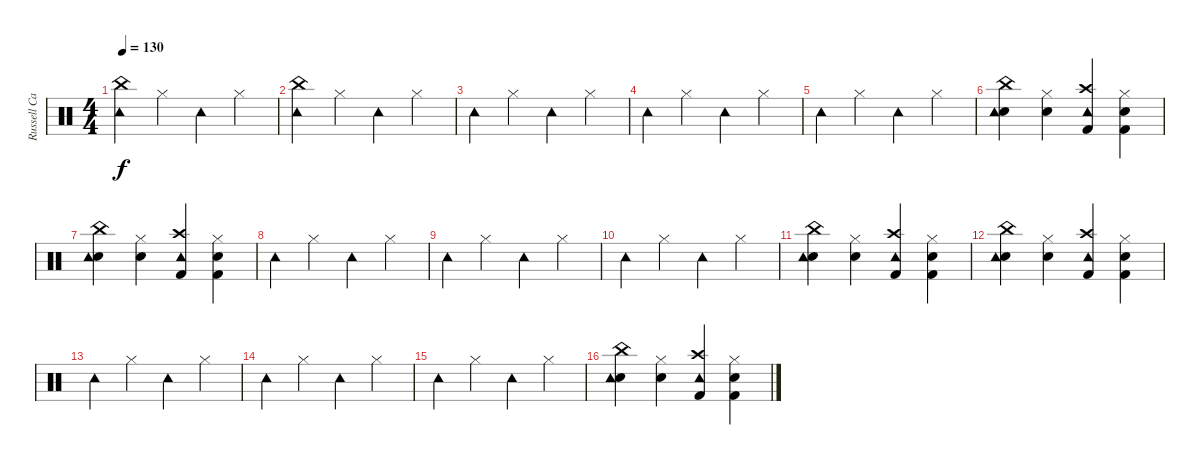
\track ("Russell Cannon" "Russell Ca") {instrument percussion}
\staff {score}
\articulation defaults
\ts (4 4)
\tempo 130
\clef neutral
\ks c
("China (hit)" "Tambourine (hit)").4{dy f} "Hi-Hat (closed)".4 "Tambourine (hit)".4 "Hi-Hat (closed)".4 |
("China (hit)" "Tambourine (hit)").4 "Hi-Hat (closed)".4 "Tambourine (hit)".4 "Hi-Hat (closed)".4 |
"Tambourine (hit)".4 "Hi-Hat (closed)".4 "Tambourine (hit)".4 "Hi-Hat (closed)".4 |
"Tambourine (hit)".4 "Hi-Hat (closed)".4 "Tambourine (hit)".4 "Hi-Hat (closed)".4 |
"Tambourine (hit)".4 "Hi-Hat (closed)".4 "Tambourine (hit)".4 "Hi-Hat (closed)".4 |
("Electric Snare (hit)" "China (hit)" "Tambourine (hit)").4 ("Electric Snare (hit)" "Hi-Hat (closed)").4 ("Crash high (hit)" "Kick (hit) 2" "Tambourine (hit)").4 ("Electric Snare (hit)" "Kick (hit) 2" "Hi-Hat (closed)").4 |
("Electric Snare (hit)" "China (hit)" "Tambourine (hit)").4 ("Electric Snare (hit)" "Hi-Hat (closed)").4 ("Crash high (hit)" "Kick (hit) 2" "Tambourine (hit)").4 ("Electric Snare (hit)" "Kick (hit) 2" "Hi-Hat (closed)").4 |
"Tambourine (hit)".4 "Hi-Hat (closed)".4 "Tambourine (hit)".4 "Hi-Hat (closed)".4 |
"Tambourine (hit)".4 "Hi-Hat (closed)".4 "Tambourine (hit)".4 "Hi-Hat (closed)".4 |
"Tambourine (hit)".4 "Hi-Hat (closed)".4 "Tambourine (hit)".4 "Hi-Hat (closed)".4 |
("Electric Snare (hit)" "China (hit)" "Tambourine (hit)").4 ("Electric Snare (hit)" "Hi-Hat (closed)").4 ("Crash high (hit)" "Kick (hit) 2" "Tambourine (hit)").4 ("Electric Snare (hit)" "Kick (hit) 2" "Hi-Hat (closed)").4 |
("Electric Snare (hit)" "China (hit)" "Tambourine (hit)").4 ("Electric Snare (hit)" "Hi-Hat (closed)").4 ("Crash high (hit)" "Kick (hit) 2" "Tambourine (hit)").4 ("Electric Snare (hit)" "Kick (hit) 2" "Hi-Hat (closed)").4 |
"Tambourine (hit)".4 "Hi-Hat (closed)".4 "Tambourine (hit)".4 "Hi-Hat (closed)".4 |
"Tambourine (hit)".4 "Hi-Hat (closed)".4 "Tambourine (hit)".4 "Hi-Hat (closed)".4 |
"Tambourine (hit)".4 "Hi-Hat (closed)".4 "Tambourine (hit)".4 "Hi-Hat (closed)".4 |
("Electric Snare (hit)" "China (hit)" "Tambourine (hit)").4 ("Electric Snare (hit)" "Hi-Hat (closed)").4 ("Crash high (hit)" "Kick (hit) 2" "Tambourine (hit)").4 ("Electric Snare (hit)" "Kick (hit) 2" "Hi-Hat (closed)").4
